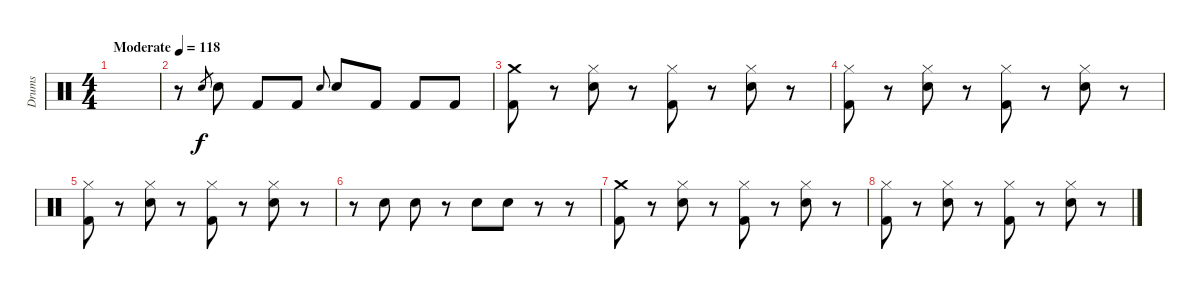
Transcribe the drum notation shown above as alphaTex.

\track ("Drums" "Drums") {instrument percussion}
\staff {score}
\articulation defaults
\ts (4 4)
\tempo (118 "Moderate")
\clef neutral
\ks c
|
r.8 "Snare (hit) 2".8{gr} "Snare (hit) 2".8 "Kick (hit) 2".8 "Kick (hit) 2".8 "Snare (hit) 2".8{gr onbeat} "Snare (hit) 2".8 "Kick (hit) 2".8 "Kick (hit) 2".8 "Kick (hit) 2".8 |
("Crash medium (hit)" "Kick (hit) 2").8 r.8 ("Hi-Hat (closed)" "Snare (hit) 2").8 r.8 ("Hi-Hat (closed)" "Kick (hit) 2").8 r.8 ("Hi-Hat (closed)" "Snare (hit) 2").8 r.8 |
("Hi-Hat (closed)" "Kick (hit) 2").8 r.8 ("Hi-Hat (closed)" "Snare (hit) 2").8 r.8 ("Hi-Hat (closed)" "Kick (hit) 2").8 r.8 ("Hi-Hat (closed)" "Snare (hit) 2").8 r.8 |
("Hi-Hat (closed)" "Kick (hit) 2").8 r.8 ("Hi-Hat (closed)" "Snare (hit) 2").8 r.8 ("Hi-Hat (closed)" "Kick (hit) 2").8 r.8 ("Hi-Hat (closed)" "Snare (hit) 2").8 r.8 |
r.8 "Snare (hit) 2".8 "Snare (hit) 2".8 r.8 "Snare (hit) 2".8 "Snare (hit) 2".8 r.8 r.8 |
("Crash medium (hit)" "Kick (hit) 2").8 r.8 ("Hi-Hat (closed)" "Snare (hit) 2").8 r.8 ("Hi-Hat (closed)" "Kick (hit) 2").8 r.8 ("Hi-Hat (closed)" "Snare (hit) 2").8 r.8 |
("Hi-Hat (closed)" "Kick (hit) 2").8 r.8 ("Hi-Hat (closed)" "Snare (hit) 2").8 r.8 ("Hi-Hat (closed)" "Kick (hit) 2").8 r.8 ("Hi-Hat (closed)" "Snare (hit) 2").8 r.8
